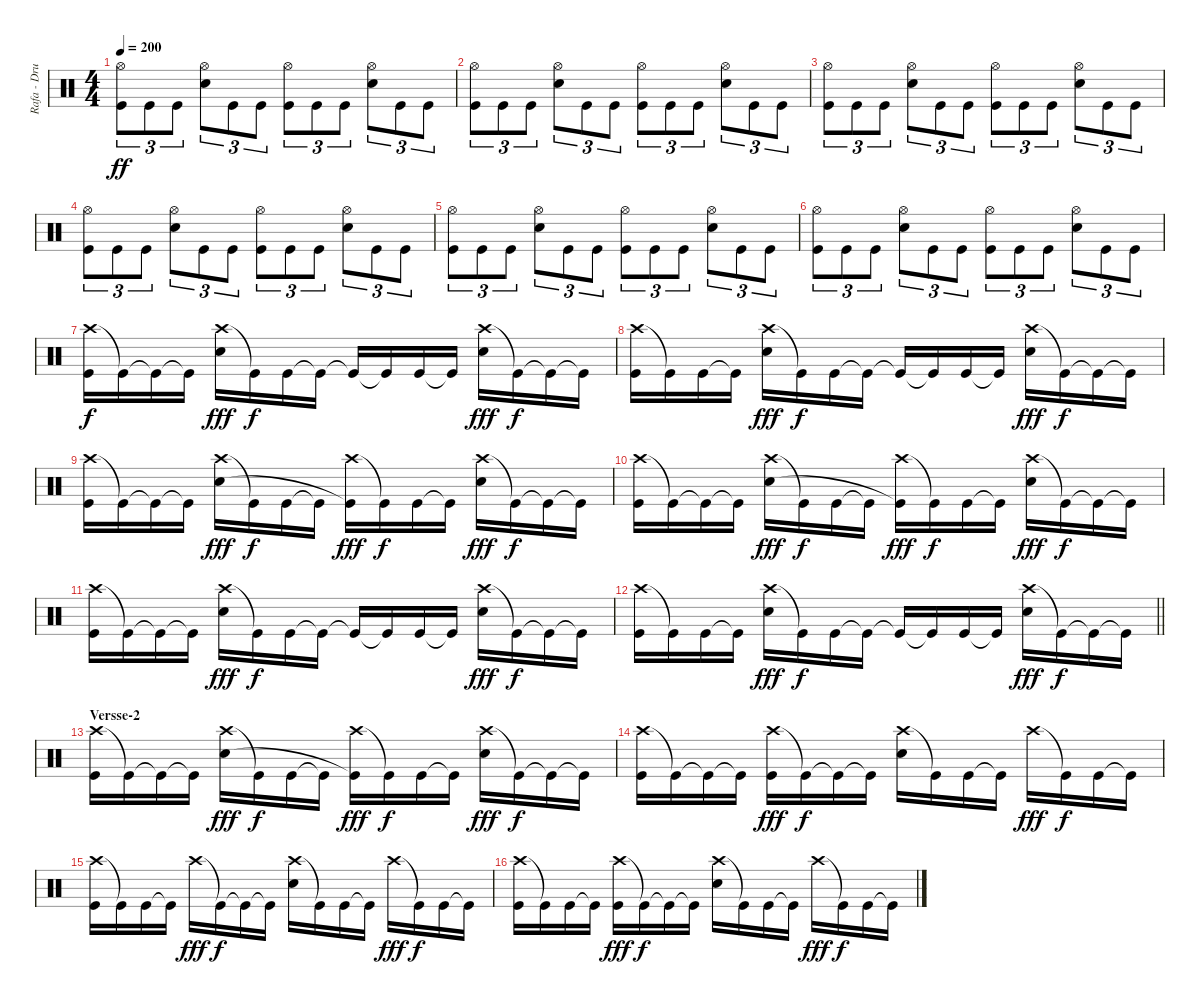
\track ("Rafa - Drums" "Rafa - Dru") {instrument percussion}
\staff {score}
\articulation defaults
\ts (4 4)
\tempo 200
\clef neutral
\ks c
("Hi-Hat (open)" "Kick (hit)").8{tu (3 2) dy ff} "Kick (hit)".8{tu (3 2)} "Kick (hit)".8{tu (3 2)} ("Hi-Hat (open)" "Electric Snare (hit)").8{tu (3 2)} "Kick (hit)".8{tu (3 2)} "Kick (hit)".8{tu (3 2)} ("Hi-Hat (open)" "Kick (hit)").8{tu (3 2)} "Kick (hit)".8{tu (3 2)} "Kick (hit)".8{tu (3 2)} ("Hi-Hat (open)" "Electric Snare (hit)").8{tu (3 2)} "Kick (hit)".8{tu (3 2)} "Kick (hit)".8{tu (3 2)} |
("Hi-Hat (open)" "Kick (hit)").8{tu (3 2)} "Kick (hit)".8{tu (3 2)} "Kick (hit)".8{tu (3 2)} ("Hi-Hat (open)" "Electric Snare (hit)").8{tu (3 2)} "Kick (hit)".8{tu (3 2)} "Kick (hit)".8{tu (3 2)} ("Hi-Hat (open)" "Kick (hit)").8{tu (3 2)} "Kick (hit)".8{tu (3 2)} "Kick (hit)".8{tu (3 2)} ("Hi-Hat (open)" "Electric Snare (hit)").8{tu (3 2)} "Kick (hit)".8{tu (3 2)} "Kick (hit)".8{tu (3 2)} |
("Hi-Hat (open)" "Kick (hit)").8{tu (3 2)} "Kick (hit)".8{tu (3 2)} "Kick (hit)".8{tu (3 2)} ("Hi-Hat (open)" "Electric Snare (hit)").8{tu (3 2)} "Kick (hit)".8{tu (3 2)} "Kick (hit)".8{tu (3 2)} ("Hi-Hat (open)" "Kick (hit)").8{tu (3 2)} "Kick (hit)".8{tu (3 2)} "Kick (hit)".8{tu (3 2)} ("Hi-Hat (open)" "Electric Snare (hit)").8{tu (3 2)} "Kick (hit)".8{tu (3 2)} "Kick (hit)".8{tu (3 2)} |
("Hi-Hat (open)" "Kick (hit)").8{tu (3 2)} "Kick (hit)".8{tu (3 2)} "Kick (hit)".8{tu (3 2)} ("Hi-Hat (open)" "Electric Snare (hit)").8{tu (3 2)} "Kick (hit)".8{tu (3 2)} "Kick (hit)".8{tu (3 2)} ("Hi-Hat (open)" "Kick (hit)").8{tu (3 2)} "Kick (hit)".8{tu (3 2)} "Kick (hit)".8{tu (3 2)} ("Hi-Hat (open)" "Electric Snare (hit)").8{tu (3 2)} "Kick (hit)".8{tu (3 2)} "Kick (hit)".8{tu (3 2)} |
("Hi-Hat (open)" "Kick (hit)").8{tu (3 2)} "Kick (hit)".8{tu (3 2)} "Kick (hit)".8{tu (3 2)} ("Hi-Hat (open)" "Electric Snare (hit)").8{tu (3 2)} "Kick (hit)".8{tu (3 2)} "Kick (hit)".8{tu (3 2)} ("Hi-Hat (open)" "Kick (hit)").8{tu (3 2)} "Kick (hit)".8{tu (3 2)} "Kick (hit)".8{tu (3 2)} ("Hi-Hat (open)" "Electric Snare (hit)").8{tu (3 2)} "Kick (hit)".8{tu (3 2)} "Kick (hit)".8{tu (3 2)} |
("Hi-Hat (open)" "Kick (hit)").8{tu (3 2)} "Kick (hit)".8{tu (3 2)} "Kick (hit)".8{tu (3 2)} ("Hi-Hat (open)" "Electric Snare (hit)").8{tu (3 2)} "Kick (hit)".8{tu (3 2)} "Kick (hit)".8{tu (3 2)} ("Hi-Hat (open)" "Kick (hit)").8{tu (3 2)} "Kick (hit)".8{tu (3 2)} "Kick (hit)".8{tu (3 2)} ("Hi-Hat (open)" "Electric Snare (hit)").8{tu (3 2)} "Kick (hit)".8{tu (3 2)} "Kick (hit)".8{tu (3 2)} |
("Crash high (hit)" "Kick (hit)").16{dy f} "Kick (hit)"{t}.16 "Kick (hit)"{t}.16 "Kick (hit)"{t}.16 ("Crash high (hit)" "Electric Snare (hit)").16{dy fff} "Kick (hit)"{t}.16{dy f} "Kick (hit)".16 "Kick (hit)"{t}.16 "Kick (hit)"{t}.16 "Kick (hit)"{t}.16 "Kick (hit)".16 "Kick (hit)"{t}.16 ("Crash high (hit)" "Electric Snare (hit)").16{dy fff} "Kick (hit)"{t}.16{dy f} "Kick (hit)"{t}.16 "Kick (hit)"{t}.16 |
("Crash high (hit)" "Kick (hit)").16 "Kick (hit)"{t}.16 "Kick (hit)".16 "Kick (hit)"{t}.16 ("Crash high (hit)" "Electric Snare (hit)").16{dy fff} "Kick (hit)"{t}.16{dy f} "Kick (hit)".16 "Kick (hit)"{t}.16 "Kick (hit)"{t}.16 "Kick (hit)"{t}.16 "Kick (hit)".16 "Kick (hit)"{t}.16 ("Crash high (hit)" "Electric Snare (hit)").16{dy fff} "Kick (hit)"{t}.16{dy f} "Kick (hit)"{t}.16 "Kick (hit)"{t}.16 |
("Crash high (hit)" "Kick (hit)").16 "Kick (hit)"{t}.16 "Kick (hit)"{t}.16 "Kick (hit)"{t}.16 ("Crash high (hit)" "Electric Snare (hit)").16{dy fff} "Kick (hit)"{t}.16{dy f} "Kick (hit)".16 "Kick (hit)"{t}.16 ("Crash high (hit)" "Kick (hit)"{t}).16{dy fff} "Kick (hit)"{t}.16{dy f} "Kick (hit)".16 "Kick (hit)"{t}.16 ("Crash high (hit)" "Electric Snare (hit)").16{dy fff} "Kick (hit)"{t}.16{dy f} "Kick (hit)"{t}.16 "Kick (hit)"{t}.16 |
("Crash high (hit)" "Kick (hit)").16 "Kick (hit)"{t}.16 "Kick (hit)"{t}.16 "Kick (hit)"{t}.16 ("Crash high (hit)" "Electric Snare (hit)").16{dy fff} "Kick (hit)"{t}.16{dy f} "Kick (hit)".16 "Kick (hit)"{t}.16 ("Crash high (hit)" "Kick (hit)"{t}).16{dy fff} "Kick (hit)"{t}.16{dy f} "Kick (hit)".16 "Kick (hit)"{t}.16 ("Crash high (hit)" "Electric Snare (hit)").16{dy fff} "Kick (hit)"{t}.16{dy f} "Kick (hit)"{t}.16 "Kick (hit)"{t}.16 |
("Crash high (hit)" "Kick (hit)").16 "Kick (hit)"{t}.16 "Kick (hit)"{t}.16 "Kick (hit)"{t}.16 ("Crash high (hit)" "Electric Snare (hit)").16{dy fff} "Kick (hit)"{t}.16{dy f} "Kick (hit)".16 "Kick (hit)"{t}.16 "Kick (hit)"{t}.16 "Kick (hit)"{t}.16 "Kick (hit)".16 "Kick (hit)"{t}.16 ("Crash high (hit)" "Electric Snare (hit)").16{dy fff} "Kick (hit)"{t}.16{dy f} "Kick (hit)"{t}.16 "Kick (hit)"{t}.16 |
\barLineRight lightlight
("Crash high (hit)" "Kick (hit)").16 "Kick (hit)"{t}.16 "Kick (hit)".16 "Kick (hit)"{t}.16 ("Crash high (hit)" "Electric Snare (hit)").16{dy fff} "Kick (hit)"{t}.16{dy f} "Kick (hit)".16 "Kick (hit)"{t}.16 "Kick (hit)"{t}.16 "Kick (hit)"{t}.16 "Kick (hit)".16 "Kick (hit)"{t}.16 ("Crash high (hit)" "Electric Snare (hit)").16{dy fff} "Kick (hit)"{t}.16{dy f} "Kick (hit)"{t}.16 "Kick (hit)"{t}.16 |
\section ("" "Versse-2")
("Crash high (hit)" "Kick (hit)").16 "Kick (hit)"{t}.16 "Kick (hit)"{t}.16 "Kick (hit)"{t}.16 ("Crash high (hit)" "Electric Snare (hit)").16{dy fff} "Kick (hit)"{t}.16{dy f} "Kick (hit)".16 "Kick (hit)"{t}.16 ("Crash high (hit)" "Kick (hit)"{t}).16{dy fff} "Kick (hit)"{t}.16{dy f} "Kick (hit)".16 "Kick (hit)"{t}.16 ("Crash high (hit)" "Electric Snare (hit)").16{dy fff} "Kick (hit)"{t}.16{dy f} "Kick (hit)"{t}.16 "Kick (hit)"{t}.16 |
("Crash high (hit)" "Kick (hit)").16 "Kick (hit)"{t}.16 "Kick (hit)"{t}.16 "Kick (hit)"{t}.16 ("Crash high (hit)" "Kick (hit)").16{dy fff} "Kick (hit)"{t}.16{dy f} "Kick (hit)"{t}.16 "Kick (hit)"{t}.16 ("Crash high (hit)" "Electric Snare (hit)").16 "Kick (hit)"{t}.16 "Kick (hit)".16 "Kick (hit)"{t}.16 "Crash high (hit)".16{dy fff} "Kick (hit)"{t}.16{dy f} "Kick (hit)".16 "Kick (hit)"{t}.16 |
("Crash high (hit)" "Kick (hit)").16 "Kick (hit)"{t}.16 "Kick (hit)".16 "Kick (hit)"{t}.16 "Crash high (hit)".16{dy fff} "Kick (hit)"{t}.16{dy f} "Kick (hit)"{t}.16 "Kick (hit)"{t}.16 ("Crash high (hit)" "Electric Snare (hit)").16 "Kick (hit)"{t}.16 "Kick (hit)".16 "Kick (hit)"{t}.16 "Crash high (hit)".16{dy fff} "Kick (hit)"{t}.16{dy f} "Kick (hit)".16 "Kick (hit)"{t}.16 |
("Crash high (hit)" "Kick (hit)").16 "Kick (hit)"{t}.16 "Kick (hit)".16 "Kick (hit)"{t}.16 ("Crash high (hit)" "Kick (hit)").16{dy fff} "Kick (hit)"{t}.16{dy f} "Kick (hit)"{t}.16 "Kick (hit)"{t}.16 ("Crash high (hit)" "Electric Snare (hit)").16 "Kick (hit)"{t}.16 "Kick (hit)".16 "Kick (hit)"{t}.16 "Crash high (hit)".16{dy fff} "Kick (hit)"{t}.16{dy f} "Kick (hit)".16 "Kick (hit)"{t}.16
